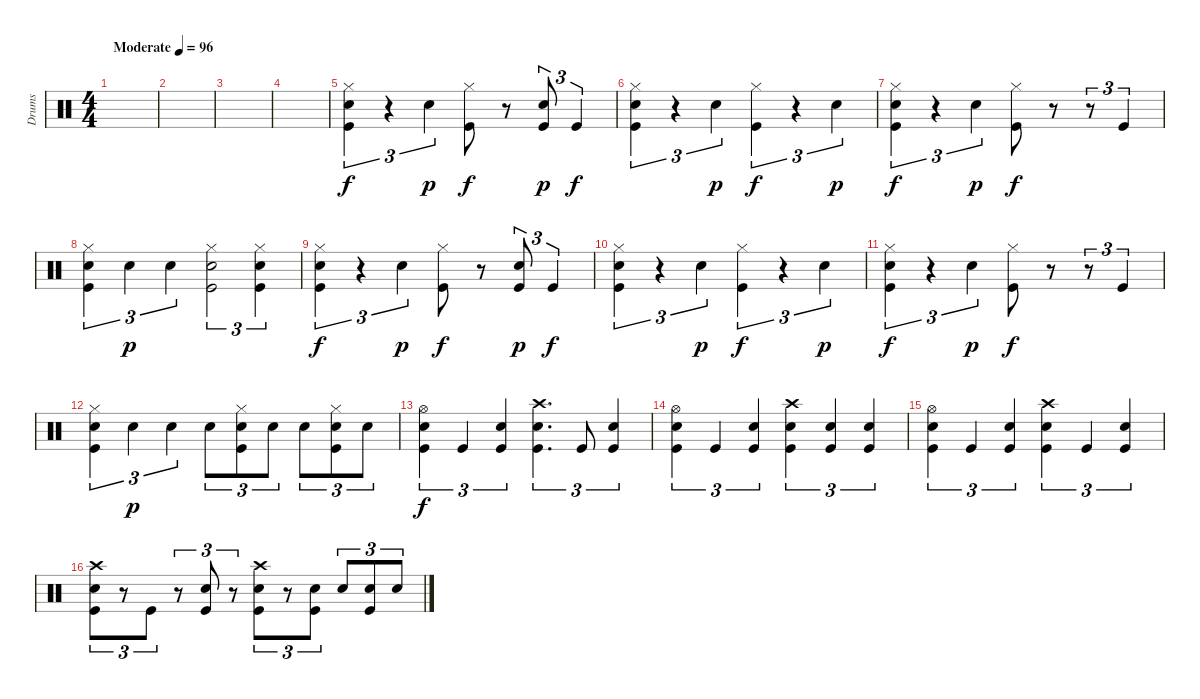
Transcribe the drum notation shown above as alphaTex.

\track ("Drums" "Drums") {instrument percussion}
\staff {score}
\articulation defaults
\ts (4 4)
\tempo (96 "Moderate")
\clef neutral
\ks c
|
|
|
|
("Hi-Hat (closed)" "Snare (hit) 2" "Kick (hit)").4{tu (3 2)} r.4{tu (3 2)} "Snare (hit) 2".4{tu (3 2) dy p} ("Hi-Hat (closed)" "Kick (hit)").8{dy f} r.8 ("Snare (hit) 2" "Kick (hit)").8{tu (3 2) dy p} "Kick (hit)".4{tu (3 2) dy f} |
("Hi-Hat (closed)" "Snare (hit) 2" "Kick (hit)").4{tu (3 2)} r.4{tu (3 2)} "Snare (hit) 2".4{tu (3 2) dy p} ("Hi-Hat (closed)" "Kick (hit)").4{tu (3 2) dy f} r.4{tu (3 2)} "Snare (hit) 2".4{tu (3 2) dy p} |
("Hi-Hat (closed)" "Snare (hit) 2" "Kick (hit)").4{tu (3 2) dy f} r.4{tu (3 2)} "Snare (hit) 2".4{tu (3 2) dy p} ("Hi-Hat (closed)" "Kick (hit)").8{dy f} r.8 r.8{tu (3 2)} "Kick (hit)".4{tu (3 2)} |
("Hi-Hat (closed)" "Snare (hit) 2" "Kick (hit)").4{tu (3 2)} "Snare (hit) 2".4{tu (3 2) dy p} "Snare (hit) 2".4{tu (3 2)} ("Hi-Hat (closed)" "Snare (hit) 2" "Kick (hit)").2{tu (3 2)} ("Hi-Hat (closed)" "Snare (hit) 2" "Kick (hit)").4{tu (3 2)} |
("Hi-Hat (closed)" "Snare (hit) 2" "Kick (hit)").4{tu (3 2) dy f} r.4{tu (3 2)} "Snare (hit) 2".4{tu (3 2) dy p} ("Hi-Hat (closed)" "Kick (hit)").8{dy f} r.8 ("Snare (hit) 2" "Kick (hit)").8{tu (3 2) dy p} "Kick (hit)".4{tu (3 2) dy f} |
("Hi-Hat (closed)" "Snare (hit) 2" "Kick (hit)").4{tu (3 2)} r.4{tu (3 2)} "Snare (hit) 2".4{tu (3 2) dy p} ("Hi-Hat (closed)" "Kick (hit)").4{tu (3 2) dy f} r.4{tu (3 2)} "Snare (hit) 2".4{tu (3 2) dy p} |
("Hi-Hat (closed)" "Snare (hit) 2" "Kick (hit)").4{tu (3 2) dy f} r.4{tu (3 2)} "Snare (hit) 2".4{tu (3 2) dy p} ("Hi-Hat (closed)" "Kick (hit)").8{dy f} r.8 r.8{tu (3 2)} "Kick (hit)".4{tu (3 2)} |
("Hi-Hat (closed)" "Snare (hit) 2" "Kick (hit)").4{tu (3 2)} "Snare (hit) 2".4{tu (3 2) dy p} "Snare (hit) 2".4{tu (3 2)} "Snare (hit) 2".8{tu (3 2)} ("Hi-Hat (closed)" "Snare (hit) 2" "Kick (hit)").8{tu (3 2)} "Snare (hit) 2".8{tu (3 2)} "Snare (hit) 2".8{tu (3 2)} ("Hi-Hat (closed)" "Snare (hit) 2" "Kick (hit)").8{tu (3 2)} "Snare (hit) 2".8{tu (3 2)} |
("Hi-Hat (open)" "Snare (hit) 2" "Kick (hit)").4{tu (3 2) dy f} "Kick (hit)".4{tu (3 2)} ("Snare (hit) 2" "Kick (hit)").4{tu (3 2)} ("Crash high (hit)" "Snare (hit) 2" "Kick (hit)").4{d tu (3 2)} "Kick (hit)".8{tu (3 2)} ("Snare (hit) 2" "Kick (hit)").4{tu (3 2)} |
("Hi-Hat (open)" "Snare (hit) 2" "Kick (hit)").4{tu (3 2)} "Kick (hit)".4{tu (3 2)} ("Snare (hit) 2" "Kick (hit)").4{tu (3 2)} ("Crash high (hit)" "Snare (hit) 2" "Kick (hit)").4{tu (3 2)} ("Snare (hit) 2" "Kick (hit)").4{tu (3 2)} ("Snare (hit) 2" "Kick (hit)").4{tu (3 2)} |
("Hi-Hat (open)" "Snare (hit) 2" "Kick (hit)").4{tu (3 2)} "Kick (hit)".4{tu (3 2)} ("Snare (hit) 2" "Kick (hit)").4{tu (3 2)} ("Crash high (hit)" "Snare (hit) 2" "Kick (hit)").4{tu (3 2)} "Kick (hit)".4{tu (3 2)} ("Snare (hit) 2" "Kick (hit)").4{tu (3 2)} |
("Crash high (hit)" "Snare (hit) 2" "Kick (hit)").8{tu (3 2)} r.8{tu (3 2)} "Kick (hit)".8{tu (3 2)} r.8{tu (3 2)} ("Snare (hit) 2" "Kick (hit)").8{tu (3 2)} r.8{tu (3 2)} ("Crash high (hit)" "Snare (hit) 2" "Kick (hit)").8{tu (3 2)} r.8{tu (3 2)} ("Snare (hit) 2" "Kick (hit)").8{tu (3 2)} "Snare (hit) 2".8{tu (3 2)} ("Snare (hit) 2" "Kick (hit)").8{tu (3 2)} "Snare (hit) 2".8{tu (3 2)}
